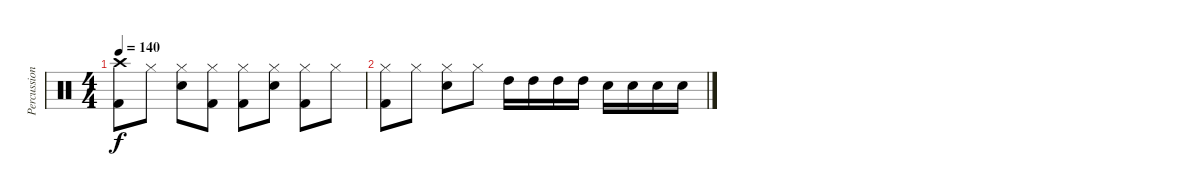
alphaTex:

\track ("Percussion" "Percussion") {instrument percussion}
\staff {score}
\articulation defaults
\ts (4 4)
\tempo 140
\clef neutral
\ks c
("Crash high (hit)" "Kick (hit) 2").8{dy f} "Hi-Hat (closed)".8 ("Hi-Hat (closed)" "Snare (hit) 2").8 ("Hi-Hat (closed)" "Kick (hit) 2").8 ("Hi-Hat (closed)" "Kick (hit) 2").8 ("Hi-Hat (closed)" "Snare (hit) 2").8 ("Hi-Hat (closed)" "Kick (hit) 2").8 "Hi-Hat (closed)".8 |
("Hi-Hat (closed)" "Kick (hit) 2").8 "Hi-Hat (closed)".8 ("Hi-Hat (closed)" "Snare (hit) 2").8 "Hi-Hat (closed)".8 "High Tom (hit)".16 "High Tom (hit)".16 "High Tom (hit)".16 "High Tom (hit)".16 "Snare (hit) 2".16 "Snare (hit) 2".16 "Snare (hit) 2".16 "Snare (hit) 2".16
